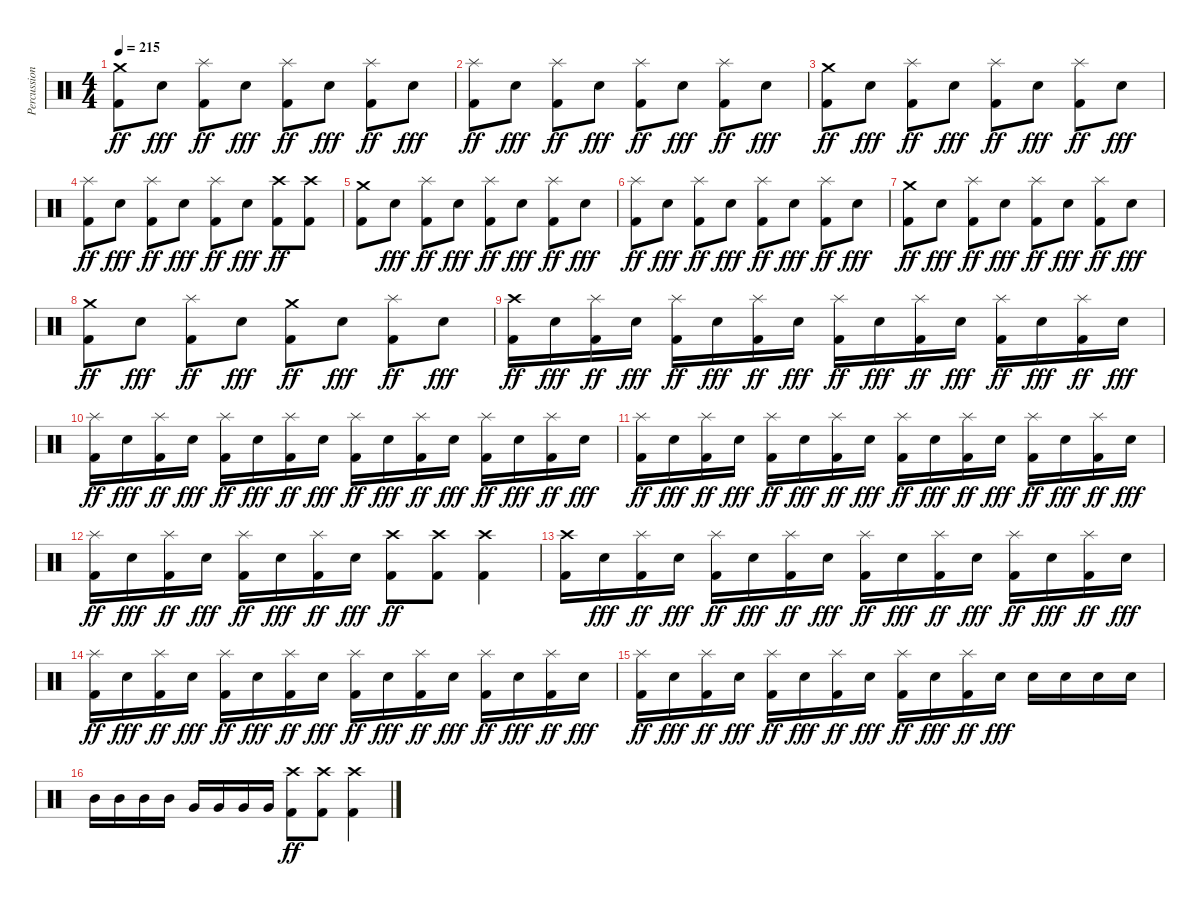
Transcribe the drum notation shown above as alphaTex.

\track ("Percussion" "Percussion") {instrument percussion}
\staff {score}
\articulation defaults
\ts (4 4)
\tempo 215
\clef neutral
\ks c
("Kick (hit) 2" "Crash medium (hit)").8{dy ff} "Electric Snare (hit)".8{dy fff} ("Kick (hit) 2" "Splash (hit)").8{dy ff} "Electric Snare (hit)".8{dy fff} ("Kick (hit) 2" "Splash (hit)").8{dy ff} "Electric Snare (hit)".8{dy fff} ("Kick (hit) 2" "Splash (hit)").8{dy ff} "Electric Snare (hit)".8{dy fff} |
("Kick (hit) 2" "Splash (hit)").8{dy ff} "Electric Snare (hit)".8{dy fff} ("Kick (hit) 2" "Splash (hit)").8{dy ff} "Electric Snare (hit)".8{dy fff} ("Kick (hit) 2" "Splash (hit)").8{dy ff} "Electric Snare (hit)".8{dy fff} ("Kick (hit) 2" "Splash (hit)").8{dy ff} "Electric Snare (hit)".8{dy fff} |
("Kick (hit) 2" "Crash medium (hit)").8{dy ff} "Electric Snare (hit)".8{dy fff} ("Kick (hit) 2" "Splash (hit)").8{dy ff} "Electric Snare (hit)".8{dy fff} ("Kick (hit) 2" "Splash (hit)").8{dy ff} "Electric Snare (hit)".8{dy fff} ("Kick (hit) 2" "Splash (hit)").8{dy ff} "Electric Snare (hit)".8{dy fff} |
("Kick (hit) 2" "Splash (hit)").8{dy ff} "Electric Snare (hit)".8{dy fff} ("Kick (hit) 2" "Splash (hit)").8{dy ff} "Electric Snare (hit)".8{dy fff} ("Kick (hit) 2" "Splash (hit)").8{dy ff} "Electric Snare (hit)".8{dy fff} ("Kick (hit) 2" "Crash high (hit)").8{dy ff} ("Kick (hit) 2" "Crash high (hit)").8 |
("Kick (hit) 2" "Crash medium (hit)").8 "Electric Snare (hit)".8{dy fff} ("Kick (hit) 2" "Splash (hit)").8{dy ff} "Electric Snare (hit)".8{dy fff} ("Kick (hit) 2" "Splash (hit)").8{dy ff} "Electric Snare (hit)".8{dy fff} ("Kick (hit) 2" "Splash (hit)").8{dy ff} "Electric Snare (hit)".8{dy fff} |
("Kick (hit) 2" "Splash (hit)").8{dy ff} "Electric Snare (hit)".8{dy fff} ("Kick (hit) 2" "Splash (hit)").8{dy ff} "Electric Snare (hit)".8{dy fff} ("Kick (hit) 2" "Splash (hit)").8{dy ff} "Electric Snare (hit)".8{dy fff} ("Kick (hit) 2" "Splash (hit)").8{dy ff} "Electric Snare (hit)".8{dy fff} |
("Kick (hit) 2" "Crash medium (hit)").8{dy ff} "Electric Snare (hit)".8{dy fff} ("Kick (hit) 2" "Splash (hit)").8{dy ff} "Electric Snare (hit)".8{dy fff} ("Kick (hit) 2" "Splash (hit)").8{dy ff} "Electric Snare (hit)".8{dy fff} ("Kick (hit) 2" "Splash (hit)").8{dy ff} "Electric Snare (hit)".8{dy fff} |
("Kick (hit) 2" "Crash medium (hit)").8{dy ff} "Electric Snare (hit)".8{dy fff} ("Kick (hit) 2" "Splash (hit)").8{dy ff} "Electric Snare (hit)".8{dy fff} ("Kick (hit) 2" "Crash medium (hit)").8{dy ff} "Electric Snare (hit)".8{dy fff} ("Kick (hit) 2" "Splash (hit)").8{dy ff} "Electric Snare (hit)".8{dy fff} |
("Kick (hit) 2" "Crash high (hit)").16{dy ff} "Electric Snare (hit)".16{dy fff} ("Kick (hit) 2" "Splash (hit)").16{dy ff} "Electric Snare (hit)".16{dy fff} ("Kick (hit) 2" "Splash (hit)").16{dy ff} "Electric Snare (hit)".16{dy fff} ("Kick (hit) 2" "Splash (hit)").16{dy ff} "Electric Snare (hit)".16{dy fff} ("Kick (hit) 2" "Splash (hit)").16{dy ff} "Electric Snare (hit)".16{dy fff} ("Kick (hit) 2" "Splash (hit)").16{dy ff} "Electric Snare (hit)".16{dy fff} ("Kick (hit) 2" "Splash (hit)").16{dy ff} "Electric Snare (hit)".16{dy fff} ("Kick (hit) 2" "Splash (hit)").16{dy ff} "Electric Snare (hit)".16{dy fff} |
("Kick (hit) 2" "Splash (hit)").16{dy ff} "Electric Snare (hit)".16{dy fff} ("Kick (hit) 2" "Splash (hit)").16{dy ff} "Electric Snare (hit)".16{dy fff} ("Kick (hit) 2" "Splash (hit)").16{dy ff} "Electric Snare (hit)".16{dy fff} ("Kick (hit) 2" "Splash (hit)").16{dy ff} "Electric Snare (hit)".16{dy fff} ("Kick (hit) 2" "Splash (hit)").16{dy ff} "Electric Snare (hit)".16{dy fff} ("Kick (hit) 2" "Splash (hit)").16{dy ff} "Electric Snare (hit)".16{dy fff} ("Kick (hit) 2" "Splash (hit)").16{dy ff} "Electric Snare (hit)".16{dy fff} ("Kick (hit) 2" "Splash (hit)").16{dy ff} "Electric Snare (hit)".16{dy fff} |
("Kick (hit) 2" "Splash (hit)").16{dy ff} "Electric Snare (hit)".16{dy fff} ("Kick (hit) 2" "Splash (hit)").16{dy ff} "Electric Snare (hit)".16{dy fff} ("Kick (hit) 2" "Splash (hit)").16{dy ff} "Electric Snare (hit)".16{dy fff} ("Kick (hit) 2" "Splash (hit)").16{dy ff} "Electric Snare (hit)".16{dy fff} ("Kick (hit) 2" "Splash (hit)").16{dy ff} "Electric Snare (hit)".16{dy fff} ("Kick (hit) 2" "Splash (hit)").16{dy ff} "Electric Snare (hit)".16{dy fff} ("Kick (hit) 2" "Splash (hit)").16{dy ff} "Electric Snare (hit)".16{dy fff} ("Kick (hit) 2" "Splash (hit)").16{dy ff} "Electric Snare (hit)".16{dy fff} |
("Kick (hit) 2" "Splash (hit)").16{dy ff} "Electric Snare (hit)".16{dy fff} ("Kick (hit) 2" "Splash (hit)").16{dy ff} "Electric Snare (hit)".16{dy fff} ("Kick (hit) 2" "Splash (hit)").16{dy ff} "Electric Snare (hit)".16{dy fff} ("Kick (hit) 2" "Splash (hit)").16{dy ff} "Electric Snare (hit)".16{dy fff} ("Kick (hit) 2" "Crash high (hit)").8{dy ff} ("Kick (hit) 2" "Crash high (hit)").8 ("Kick (hit) 2" "Crash high (hit)").4 |
("Kick (hit) 2" "Crash high (hit)").16 "Electric Snare (hit)".16{dy fff} ("Kick (hit) 2" "Splash (hit)").16{dy ff} "Electric Snare (hit)".16{dy fff} ("Kick (hit) 2" "Splash (hit)").16{dy ff} "Electric Snare (hit)".16{dy fff} ("Kick (hit) 2" "Splash (hit)").16{dy ff} "Electric Snare (hit)".16{dy fff} ("Kick (hit) 2" "Splash (hit)").16{dy ff} "Electric Snare (hit)".16{dy fff} ("Kick (hit) 2" "Splash (hit)").16{dy ff} "Electric Snare (hit)".16{dy fff} ("Kick (hit) 2" "Splash (hit)").16{dy ff} "Electric Snare (hit)".16{dy fff} ("Kick (hit) 2" "Splash (hit)").16{dy ff} "Electric Snare (hit)".16{dy fff} |
("Kick (hit) 2" "Splash (hit)").16{dy ff} "Electric Snare (hit)".16{dy fff} ("Kick (hit) 2" "Splash (hit)").16{dy ff} "Electric Snare (hit)".16{dy fff} ("Kick (hit) 2" "Splash (hit)").16{dy ff} "Electric Snare (hit)".16{dy fff} ("Kick (hit) 2" "Splash (hit)").16{dy ff} "Electric Snare (hit)".16{dy fff} ("Kick (hit) 2" "Splash (hit)").16{dy ff} "Electric Snare (hit)".16{dy fff} ("Kick (hit) 2" "Splash (hit)").16{dy ff} "Electric Snare (hit)".16{dy fff} ("Kick (hit) 2" "Splash (hit)").16{dy ff} "Electric Snare (hit)".16{dy fff} ("Kick (hit) 2" "Splash (hit)").16{dy ff} "Electric Snare (hit)".16{dy fff} |
("Kick (hit) 2" "Splash (hit)").16{dy ff} "Electric Snare (hit)".16{dy fff} ("Kick (hit) 2" "Splash (hit)").16{dy ff} "Electric Snare (hit)".16{dy fff} ("Kick (hit) 2" "Splash (hit)").16{dy ff} "Electric Snare (hit)".16{dy fff} ("Kick (hit) 2" "Splash (hit)").16{dy ff} "Electric Snare (hit)".16{dy fff} ("Kick (hit) 2" "Splash (hit)").16{dy ff} "Electric Snare (hit)".16{dy fff} ("Kick (hit) 2" "Splash (hit)").16{dy ff} "Electric Snare (hit)".16{dy fff} "Electric Snare (hit)".16 "Electric Snare (hit)".16 "Electric Snare (hit)".16 "Electric Snare (hit)".16 |
"Mid Tom (hit)".16 "Mid Tom (hit)".16 "Mid Tom (hit)".16 "Mid Tom (hit)".16 "Very Low Tom (hit)".16 "Very Low Tom (hit)".16 "Very Low Tom (hit)".16 "Very Low Tom (hit)".16 ("Kick (hit) 2" "Crash high (hit)").8{dy ff} ("Kick (hit) 2" "Crash high (hit)").8 ("Kick (hit) 2" "Crash high (hit)").4
